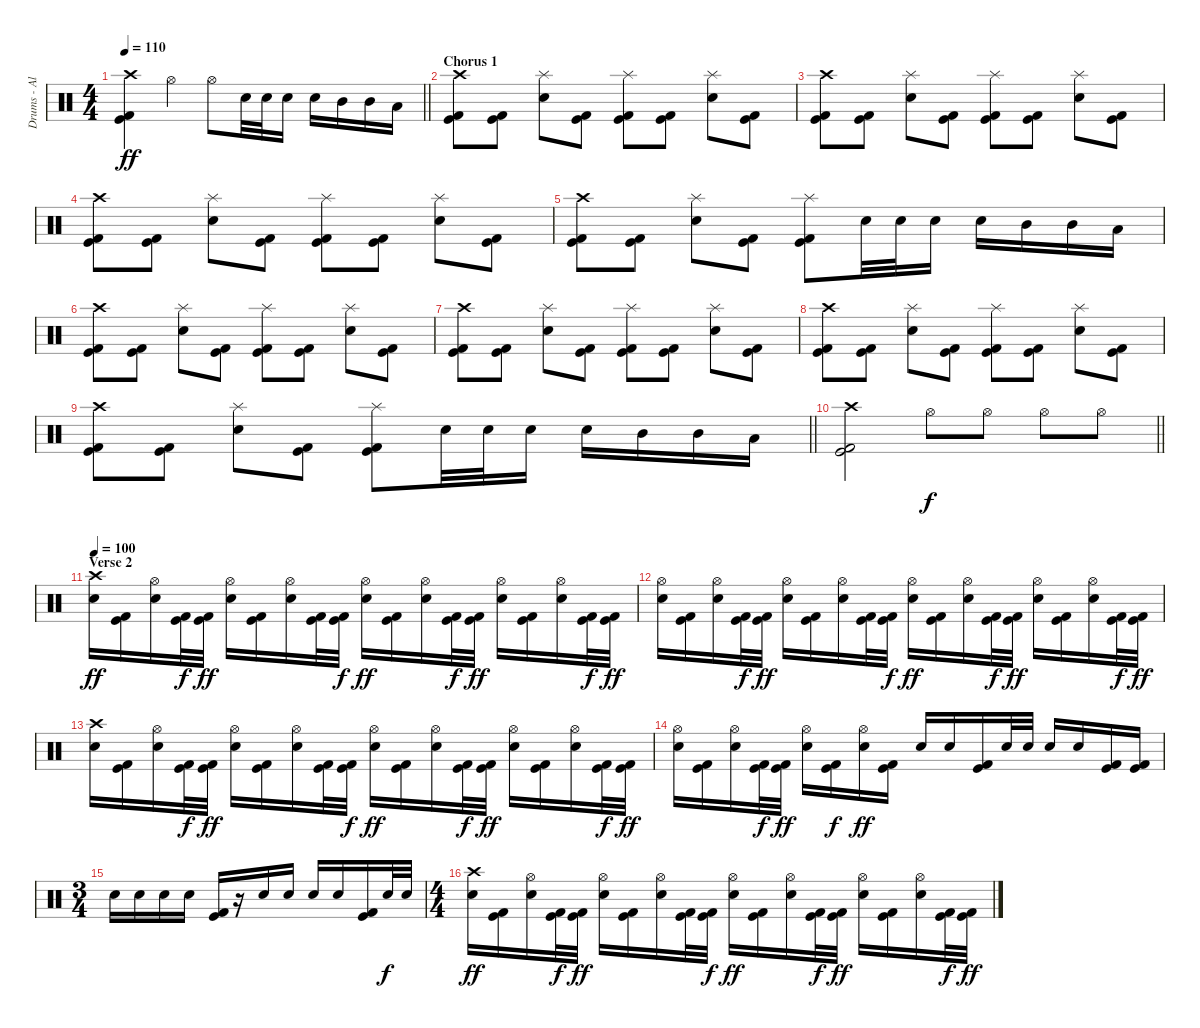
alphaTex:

\track ("Drums - Alex Shellnut" "Drums - Al") {instrument percussion}
\staff {score}
\articulation defaults
\ts (4 4)
\tempo 110
\clef neutral
\barLineRight lightlight
\ks c
("Crash high (hit)" "Kick (hit)" "Kick (hit) 2").4{dy ff} "Hi-Hat (open)".4 "Hi-Hat (open)".8 "Electric Snare (hit)".32 "Electric Snare (hit)".32 "Electric Snare (hit)".16 "Electric Snare (hit)".16 "Mid Tom (hit)".16 "Mid Tom (hit)".16 "Low Tom (hit)".16 |
\section ("" "Chorus 1")
("Crash high (hit)" "Kick (hit)" "Kick (hit) 2").8 ("Kick (hit)" "Kick (hit) 2").8 ("Splash (hit)" "Electric Snare (hit)").8 ("Kick (hit)" "Kick (hit) 2").8 ("Splash (hit)" "Kick (hit)" "Kick (hit) 2").8 ("Kick (hit)" "Kick (hit) 2").8 ("Splash (hit)" "Electric Snare (hit)").8 ("Kick (hit)" "Kick (hit) 2").8 |
("Crash high (hit)" "Kick (hit)" "Kick (hit) 2").8 ("Kick (hit)" "Kick (hit) 2").8 ("Splash (hit)" "Electric Snare (hit)").8 ("Kick (hit)" "Kick (hit) 2").8 ("Splash (hit)" "Kick (hit)" "Kick (hit) 2").8 ("Kick (hit)" "Kick (hit) 2").8 ("Splash (hit)" "Electric Snare (hit)").8 ("Kick (hit)" "Kick (hit) 2").8 |
("Crash high (hit)" "Kick (hit)" "Kick (hit) 2").8 ("Kick (hit)" "Kick (hit) 2").8 ("Splash (hit)" "Electric Snare (hit)").8 ("Kick (hit)" "Kick (hit) 2").8 ("Splash (hit)" "Kick (hit)" "Kick (hit) 2").8 ("Kick (hit)" "Kick (hit) 2").8 ("Splash (hit)" "Electric Snare (hit)").8 ("Kick (hit)" "Kick (hit) 2").8 |
("Crash high (hit)" "Kick (hit)" "Kick (hit) 2").8 ("Kick (hit)" "Kick (hit) 2").8 ("Splash (hit)" "Electric Snare (hit)").8 ("Kick (hit)" "Kick (hit) 2").8 ("Splash (hit)" "Kick (hit)" "Kick (hit) 2").8 "Electric Snare (hit)".32 "Electric Snare (hit)".32 "Electric Snare (hit)".16 "Electric Snare (hit)".16 "Mid Tom (hit)".16 "Mid Tom (hit)".16 "Low Tom (hit)".16 |
("Crash high (hit)" "Kick (hit)" "Kick (hit) 2").8 ("Kick (hit)" "Kick (hit) 2").8 ("Splash (hit)" "Electric Snare (hit)").8 ("Kick (hit)" "Kick (hit) 2").8 ("Splash (hit)" "Kick (hit)" "Kick (hit) 2").8 ("Kick (hit)" "Kick (hit) 2").8 ("Splash (hit)" "Electric Snare (hit)").8 ("Kick (hit)" "Kick (hit) 2").8 |
("Crash high (hit)" "Kick (hit)" "Kick (hit) 2").8 ("Kick (hit)" "Kick (hit) 2").8 ("Splash (hit)" "Electric Snare (hit)").8 ("Kick (hit)" "Kick (hit) 2").8 ("Splash (hit)" "Kick (hit)" "Kick (hit) 2").8 ("Kick (hit)" "Kick (hit) 2").8 ("Splash (hit)" "Electric Snare (hit)").8 ("Kick (hit)" "Kick (hit) 2").8 |
("Crash high (hit)" "Kick (hit)" "Kick (hit) 2").8 ("Kick (hit)" "Kick (hit) 2").8 ("Splash (hit)" "Electric Snare (hit)").8 ("Kick (hit)" "Kick (hit) 2").8 ("Splash (hit)" "Kick (hit)" "Kick (hit) 2").8 ("Kick (hit)" "Kick (hit) 2").8 ("Splash (hit)" "Electric Snare (hit)").8 ("Kick (hit)" "Kick (hit) 2").8 |
\barLineRight lightlight
("Crash high (hit)" "Kick (hit)" "Kick (hit) 2").8 ("Kick (hit)" "Kick (hit) 2").8 ("Splash (hit)" "Electric Snare (hit)").8 ("Kick (hit)" "Kick (hit) 2").8 ("Splash (hit)" "Kick (hit)" "Kick (hit) 2").8 "Electric Snare (hit)".32 "Electric Snare (hit)".32 "Electric Snare (hit)".16 "Electric Snare (hit)".16 "Mid Tom (hit)".16 "Mid Tom (hit)".16 "Low Tom (hit)".16 |
\barLineRight lightlight
("Crash high (hit)" "Kick (hit)" "Kick (hit) 2").2 "Hi-Hat (open)".8{dy f} "Hi-Hat (open)".8 "Hi-Hat (open)".8 "Hi-Hat (open)".8 |
\section ("" "Verse 2")
\tempo 100
("Crash high (hit)" "Electric Snare (hit)").16{dy ff} ("Kick (hit)" "Kick (hit) 2").16 ("Hi-Hat (open)" "Electric Snare (hit)").16 ("Kick (hit)" "Kick (hit) 2").32{dy f} ("Kick (hit)" "Kick (hit) 2").32{dy ff} ("Hi-Hat (open)" "Electric Snare (hit)").16 ("Kick (hit)" "Kick (hit) 2").16 ("Hi-Hat (open)" "Electric Snare (hit)").16 ("Kick (hit)" "Kick (hit) 2").32 ("Kick (hit)" "Kick (hit) 2").32{dy f} ("Hi-Hat (open)" "Electric Snare (hit)").16{dy ff} ("Kick (hit)" "Kick (hit) 2").16 ("Hi-Hat (open)" "Electric Snare (hit)").16 ("Kick (hit)" "Kick (hit) 2").32{dy f} ("Kick (hit)" "Kick (hit) 2").32{dy ff} ("Hi-Hat (open)" "Electric Snare (hit)").16 ("Kick (hit)" "Kick (hit) 2").16 ("Hi-Hat (open)" "Electric Snare (hit)").16 ("Kick (hit)" "Kick (hit) 2").32{dy f} ("Kick (hit)" "Kick (hit) 2").32{dy ff} |
("Hi-Hat (open)" "Electric Snare (hit)").16 ("Kick (hit)" "Kick (hit) 2").16 ("Hi-Hat (open)" "Electric Snare (hit)").16 ("Kick (hit)" "Kick (hit) 2").32{dy f} ("Kick (hit)" "Kick (hit) 2").32{dy ff} ("Hi-Hat (open)" "Electric Snare (hit)").16 ("Kick (hit)" "Kick (hit) 2").16 ("Hi-Hat (open)" "Electric Snare (hit)").16 ("Kick (hit)" "Kick (hit) 2").32 ("Kick (hit)" "Kick (hit) 2").32{dy f} ("Hi-Hat (open)" "Electric Snare (hit)").16{dy ff} ("Kick (hit)" "Kick (hit) 2").16 ("Hi-Hat (open)" "Electric Snare (hit)").16 ("Kick (hit)" "Kick (hit) 2").32{dy f} ("Kick (hit)" "Kick (hit) 2").32{dy ff} ("Hi-Hat (open)" "Electric Snare (hit)").16 ("Kick (hit)" "Kick (hit) 2").16 ("Hi-Hat (open)" "Electric Snare (hit)").16 ("Kick (hit)" "Kick (hit) 2").32{dy f} ("Kick (hit)" "Kick (hit) 2").32{dy ff} |
("Crash high (hit)" "Electric Snare (hit)").16 ("Kick (hit)" "Kick (hit) 2").16 ("Hi-Hat (open)" "Electric Snare (hit)").16 ("Kick (hit)" "Kick (hit) 2").32{dy f} ("Kick (hit)" "Kick (hit) 2").32{dy ff} ("Hi-Hat (open)" "Electric Snare (hit)").16 ("Kick (hit)" "Kick (hit) 2").16 ("Hi-Hat (open)" "Electric Snare (hit)").16 ("Kick (hit)" "Kick (hit) 2").32 ("Kick (hit)" "Kick (hit) 2").32{dy f} ("Hi-Hat (open)" "Electric Snare (hit)").16{dy ff} ("Kick (hit)" "Kick (hit) 2").16 ("Hi-Hat (open)" "Electric Snare (hit)").16 ("Kick (hit)" "Kick (hit) 2").32{dy f} ("Kick (hit)" "Kick (hit) 2").32{dy ff} ("Hi-Hat (open)" "Electric Snare (hit)").16 ("Kick (hit)" "Kick (hit) 2").16 ("Hi-Hat (open)" "Electric Snare (hit)").16 ("Kick (hit)" "Kick (hit) 2").32{dy f} ("Kick (hit)" "Kick (hit) 2").32{dy ff} |
("Hi-Hat (open)" "Electric Snare (hit)").16 ("Kick (hit)" "Kick (hit) 2").16 ("Hi-Hat (open)" "Electric Snare (hit)").16 ("Kick (hit)" "Kick (hit) 2").32{dy f} ("Kick (hit)" "Kick (hit) 2").32{dy ff} ("Hi-Hat (open)" "Electric Snare (hit)").16 ("Kick (hit)" "Kick (hit) 2").16{dy f} ("Hi-Hat (open)" "Electric Snare (hit)").16{dy ff} ("Kick (hit)" "Kick (hit) 2").16 "Electric Snare (hit)".16 "Electric Snare (hit)".16 ("Kick (hit) 2" "Kick (hit)").16 "Electric Snare (hit)".32 "Electric Snare (hit)".32 "Electric Snare (hit)".16 "Electric Snare (hit)".16 ("Kick (hit)" "Kick (hit) 2").16 ("Kick (hit)" "Kick (hit) 2").16 |
\ts (3 4)
"Electric Snare (hit)".16 "Electric Snare (hit)".16 "Electric Snare (hit)".16 "Electric Snare (hit)".16 ("Kick (hit)" "Kick (hit) 2").16 r.16 "Electric Snare (hit)".16 "Electric Snare (hit)".16 "Electric Snare (hit)".16 "Electric Snare (hit)".16 ("Kick (hit)" "Kick (hit) 2").16 "Electric Snare (hit)".32{dy f} "Electric Snare (hit)".32 |
\ts (4 4)
("Crash high (hit)" "Electric Snare (hit)").16{dy ff} ("Kick (hit)" "Kick (hit) 2").16 ("Hi-Hat (open)" "Electric Snare (hit)").16 ("Kick (hit)" "Kick (hit) 2").32{dy f} ("Kick (hit)" "Kick (hit) 2").32{dy ff} ("Hi-Hat (open)" "Electric Snare (hit)").16 ("Kick (hit)" "Kick (hit) 2").16 ("Hi-Hat (open)" "Electric Snare (hit)").16 ("Kick (hit)" "Kick (hit) 2").32 ("Kick (hit)" "Kick (hit) 2").32{dy f} ("Hi-Hat (open)" "Electric Snare (hit)").16{dy ff} ("Kick (hit)" "Kick (hit) 2").16 ("Hi-Hat (open)" "Electric Snare (hit)").16 ("Kick (hit)" "Kick (hit) 2").32{dy f} ("Kick (hit)" "Kick (hit) 2").32{dy ff} ("Hi-Hat (open)" "Electric Snare (hit)").16 ("Kick (hit)" "Kick (hit) 2").16 ("Hi-Hat (open)" "Electric Snare (hit)").16 ("Kick (hit)" "Kick (hit) 2").32{dy f} ("Kick (hit)" "Kick (hit) 2").32{dy ff}
